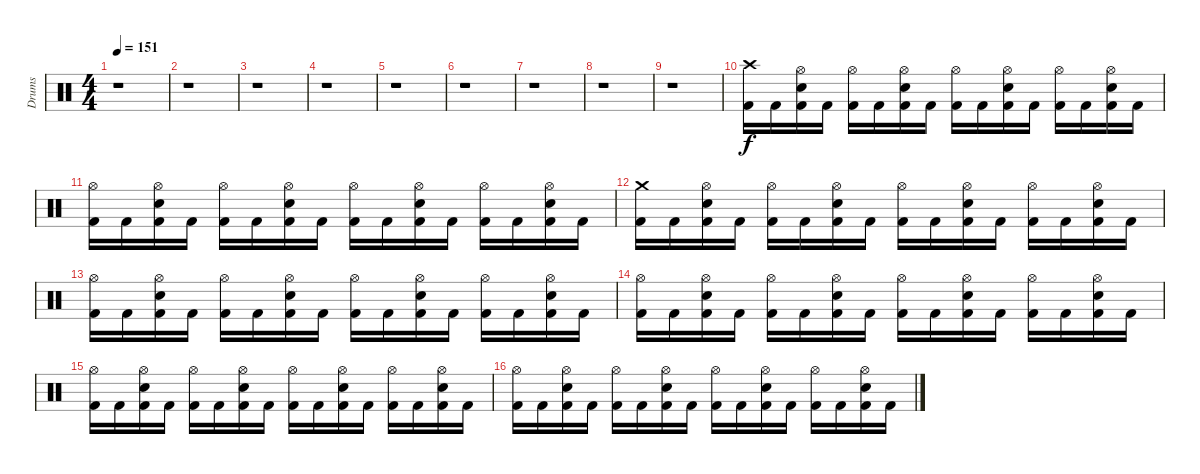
\track ("Drums" "Drums") {instrument percussion}
\staff {score}
\articulation defaults
\ts (4 4)
\tempo 151
\clef neutral
\ks c
r.1{dy f} |
r.1 |
r.1 |
r.1 |
r.1 |
r.1 |
r.1 |
r.1 |
r.1 |
\section ("" "")
("Kick (hit) 2" "Crash high (hit)").16 "Kick (hit) 2".16 ("Kick (hit) 2" "Snare (hit) 2" "Hi-Hat (open)").16 "Kick (hit) 2".16 ("Kick (hit) 2" "Hi-Hat (open)").16 "Kick (hit) 2".16 ("Kick (hit) 2" "Snare (hit) 2" "Hi-Hat (open)").16 "Kick (hit) 2".16 ("Kick (hit) 2" "Hi-Hat (open)").16 "Kick (hit) 2".16 ("Kick (hit) 2" "Snare (hit) 2" "Hi-Hat (open)").16 "Kick (hit) 2".16 ("Kick (hit) 2" "Hi-Hat (open)").16 "Kick (hit) 2".16 ("Kick (hit) 2" "Snare (hit) 2" "Hi-Hat (open)").16 "Kick (hit) 2".16 |
("Kick (hit) 2" "Hi-Hat (open)").16 "Kick (hit) 2".16 ("Kick (hit) 2" "Snare (hit) 2" "Hi-Hat (open)").16 "Kick (hit) 2".16 ("Kick (hit) 2" "Hi-Hat (open)").16 "Kick (hit) 2".16 ("Kick (hit) 2" "Snare (hit) 2" "Hi-Hat (open)").16 "Kick (hit) 2".16 ("Kick (hit) 2" "Hi-Hat (open)").16 "Kick (hit) 2".16 ("Kick (hit) 2" "Snare (hit) 2" "Hi-Hat (open)").16 "Kick (hit) 2".16 ("Kick (hit) 2" "Hi-Hat (open)").16 "Kick (hit) 2".16 ("Kick (hit) 2" "Snare (hit) 2" "Hi-Hat (open)").16 "Kick (hit) 2".16 |
("Kick (hit) 2" "Crash medium (hit)").16 "Kick (hit) 2".16 ("Kick (hit) 2" "Snare (hit) 2" "Hi-Hat (open)").16 "Kick (hit) 2".16 ("Kick (hit) 2" "Hi-Hat (open)").16 "Kick (hit) 2".16 ("Kick (hit) 2" "Snare (hit) 2" "Hi-Hat (open)").16 "Kick (hit) 2".16 ("Kick (hit) 2" "Hi-Hat (open)").16 "Kick (hit) 2".16 ("Kick (hit) 2" "Snare (hit) 2" "Hi-Hat (open)").16 "Kick (hit) 2".16 ("Kick (hit) 2" "Hi-Hat (open)").16 "Kick (hit) 2".16 ("Kick (hit) 2" "Snare (hit) 2" "Hi-Hat (open)").16 "Kick (hit) 2".16 |
("Kick (hit) 2" "Hi-Hat (open)").16 "Kick (hit) 2".16 ("Kick (hit) 2" "Snare (hit) 2" "Hi-Hat (open)").16 "Kick (hit) 2".16 ("Kick (hit) 2" "Hi-Hat (open)").16 "Kick (hit) 2".16 ("Kick (hit) 2" "Snare (hit) 2" "Hi-Hat (open)").16 "Kick (hit) 2".16 ("Kick (hit) 2" "Hi-Hat (open)").16 "Kick (hit) 2".16 ("Kick (hit) 2" "Snare (hit) 2" "Hi-Hat (open)").16 "Kick (hit) 2".16 ("Kick (hit) 2" "Hi-Hat (open)").16 "Kick (hit) 2".16 ("Kick (hit) 2" "Snare (hit) 2" "Hi-Hat (open)").16 "Kick (hit) 2".16 |
("Kick (hit) 2" "Hi-Hat (open)").16 "Kick (hit) 2".16 ("Kick (hit) 2" "Snare (hit) 2" "Hi-Hat (open)").16 "Kick (hit) 2".16 ("Kick (hit) 2" "Hi-Hat (open)").16 "Kick (hit) 2".16 ("Kick (hit) 2" "Snare (hit) 2" "Hi-Hat (open)").16 "Kick (hit) 2".16 ("Kick (hit) 2" "Hi-Hat (open)").16 "Kick (hit) 2".16 ("Kick (hit) 2" "Snare (hit) 2" "Hi-Hat (open)").16 "Kick (hit) 2".16 ("Kick (hit) 2" "Hi-Hat (open)").16 "Kick (hit) 2".16 ("Kick (hit) 2" "Snare (hit) 2" "Hi-Hat (open)").16 "Kick (hit) 2".16 |
("Kick (hit) 2" "Hi-Hat (open)").16 "Kick (hit) 2".16 ("Kick (hit) 2" "Snare (hit) 2" "Hi-Hat (open)").16 "Kick (hit) 2".16 ("Kick (hit) 2" "Hi-Hat (open)").16 "Kick (hit) 2".16 ("Kick (hit) 2" "Snare (hit) 2" "Hi-Hat (open)").16 "Kick (hit) 2".16 ("Kick (hit) 2" "Hi-Hat (open)").16 "Kick (hit) 2".16 ("Kick (hit) 2" "Snare (hit) 2" "Hi-Hat (open)").16 "Kick (hit) 2".16 ("Kick (hit) 2" "Hi-Hat (open)").16 "Kick (hit) 2".16 ("Kick (hit) 2" "Snare (hit) 2" "Hi-Hat (open)").16 "Kick (hit) 2".16 |
("Kick (hit) 2" "Hi-Hat (open)").16 "Kick (hit) 2".16 ("Kick (hit) 2" "Snare (hit) 2" "Hi-Hat (open)").16 "Kick (hit) 2".16 ("Kick (hit) 2" "Hi-Hat (open)").16 "Kick (hit) 2".16 ("Kick (hit) 2" "Snare (hit) 2" "Hi-Hat (open)").16 "Kick (hit) 2".16 ("Kick (hit) 2" "Hi-Hat (open)").16 "Kick (hit) 2".16 ("Kick (hit) 2" "Snare (hit) 2" "Hi-Hat (open)").16 "Kick (hit) 2".16 ("Kick (hit) 2" "Hi-Hat (open)").16 "Kick (hit) 2".16 ("Kick (hit) 2" "Snare (hit) 2" "Hi-Hat (open)").16 "Kick (hit) 2".16
